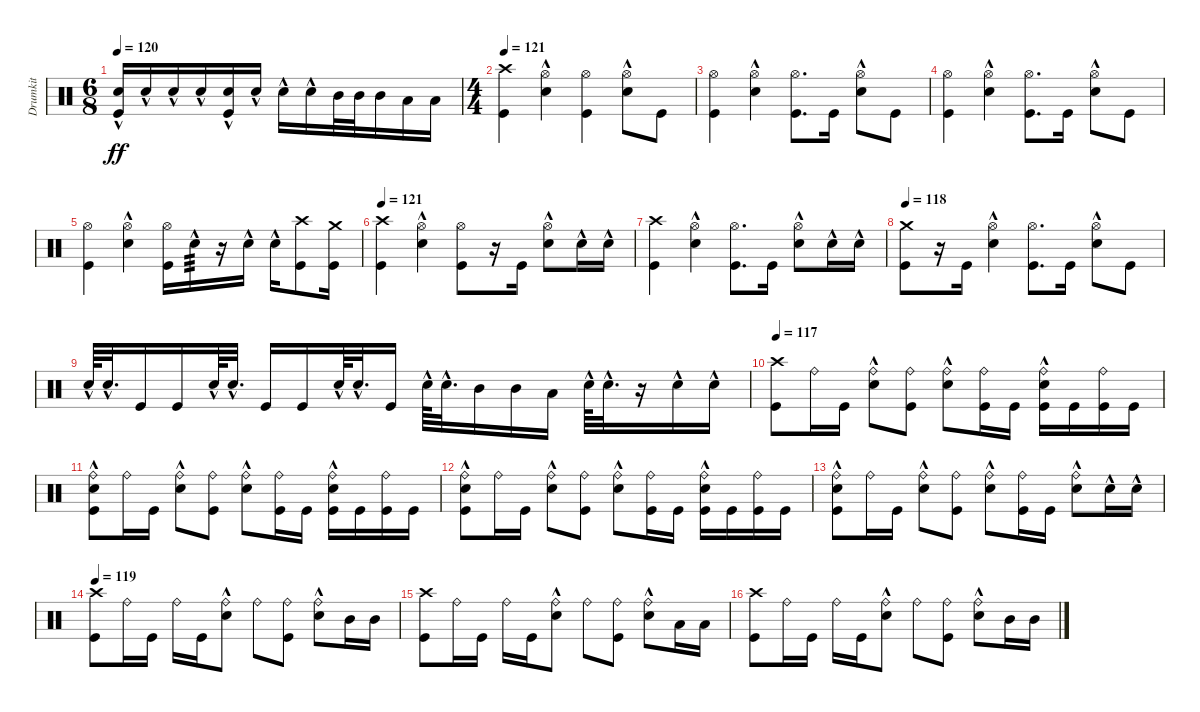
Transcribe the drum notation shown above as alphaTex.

\track ("Drumkit" "Drumkit") {instrument percussion}
\staff {score}
\articulation defaults
\ts (6 8)
\tempo 120
\clef neutral
\ks aminor
("Snare (hit) 2"{hac} "Kick (hit)").16{dy ff} "Snare (hit) 2"{hac}.16 "Snare (hit) 2"{hac}.16 "Snare (hit) 2"{hac}.16 ("Snare (hit) 2"{hac} "Kick (hit)").16 "Snare (hit) 2"{hac}.16 "Snare (hit) 2"{hac}.16 "Snare (hit) 2"{hac}.16 "Mid Tom (hit)".32 "Mid Tom (hit)".32 "Mid Tom (hit)".16 "Low Tom (hit)".16 "Low Tom (hit)".16 |
\ts (4 4)
\tempo 121
("Kick (hit)" "Crash high (hit)").4 ("Hi-Hat (open)" "Snare (hit) 2"{hac}).4 ("Hi-Hat (open)" "Kick (hit)").4 ("Hi-Hat (open)" "Snare (hit) 2"{hac}).8 "Kick (hit)".8 |
("Hi-Hat (open)" "Kick (hit)").4 ("Hi-Hat (open)" "Snare (hit) 2"{hac}).4 ("Hi-Hat (open)" "Kick (hit)").8{d} "Kick (hit)".16 ("Hi-Hat (open)" "Snare (hit) 2"{hac}).8 "Kick (hit)".8 |
("Hi-Hat (open)" "Kick (hit)").4 ("Hi-Hat (open)" "Snare (hit) 2"{hac}).4 ("Hi-Hat (open)" "Kick (hit)").8{d} "Kick (hit)".16 ("Hi-Hat (open)" "Snare (hit) 2"{hac}).8 "Kick (hit)".8 |
("Hi-Hat (open)" "Kick (hit)").4 ("Hi-Hat (open)" "Snare (hit) 2"{hac}).4 ("Hi-Hat (open)" "Kick (hit)").16 "Snare (hit) 2"{hac}.16{tp 3} r.16 "Snare (hit) 2"{hac}.16 "Snare (hit) 2"{hac}.16 ("Kick (hit)" "Crash high (hit)").8 ("Kick (hit)" "Crash medium (hit)").16 |
\tempo 121
("Kick (hit)" "Crash high (hit)").4 ("Hi-Hat (open)" "Snare (hit) 2"{hac}).4 ("Hi-Hat (open)" "Kick (hit)").8 r.16 "Kick (hit)".16 ("Hi-Hat (open)" "Snare (hit) 2"{hac}).8 "Snare (hit) 2"{hac}.16 "Snare (hit) 2"{hac}.16 |
("Kick (hit)" "Crash high (hit)").4 ("Hi-Hat (open)" "Snare (hit) 2"{hac}).4 ("Hi-Hat (open)" "Kick (hit)").8{d} "Kick (hit)".16 ("Hi-Hat (open)" "Snare (hit) 2"{hac}).8 "Snare (hit) 2"{hac}.16 "Snare (hit) 2"{hac}.16 |
\tempo 118
("Kick (hit)" "Crash medium (hit)").8 r.16 "Kick (hit)".16 ("Hi-Hat (open)" "Snare (hit) 2"{hac}).4 ("Hi-Hat (open)" "Kick (hit)").8{d} "Kick (hit)".16 ("Hi-Hat (open)" "Snare (hit) 2"{hac}).8 "Kick (hit)".8 |
"Snare (hit) 2"{hac}.64 "Snare (hit) 2"{hac}.32{d} "Kick (hit)".16 "Kick (hit)".16 "Snare (hit) 2"{hac}.64 "Snare (hit) 2"{hac}.32{d} "Kick (hit)".16 "Kick (hit)".16 "Snare (hit) 2"{hac}.64 "Snare (hit) 2"{hac}.32{d} "Kick (hit)".16 "Snare (hit) 2"{hac}.64 "Snare (hit) 2"{hac}.32{d} "Mid Tom (hit)".16 "Mid Tom (hit)".16 "Low Tom (hit)".16 "Snare (hit) 2"{hac}.64 "Snare (hit) 2"{hac}.32{d} r.16 "Snare (hit) 2"{hac}.16 "Snare (hit) 2"{hac}.16 |
\tempo 117
("Kick (hit)" "Crash high (hit)").8 "Ride (bell)".16 "Kick (hit)".16 ("Ride (bell)" "Snare (hit) 2"{hac}).8 ("Ride (bell)" "Kick (hit)").8 ("Ride (bell)" "Snare (hit) 2"{hac}).8 ("Ride (bell)" "Kick (hit)").16 "Kick (hit)".16 ("Ride (bell)" "Snare (hit) 2"{hac} "Kick (hit)").16 "Kick (hit)".16 ("Ride (bell)" "Kick (hit)").16 "Kick (hit)".16 |
("Kick (hit)" "Ride (bell)" "Snare (hit) 2"{hac}).8 "Ride (bell)".16 "Kick (hit)".16 ("Ride (bell)" "Snare (hit) 2"{hac}).8 ("Ride (bell)" "Kick (hit)").8 ("Ride (bell)" "Snare (hit) 2"{hac}).8 ("Ride (bell)" "Kick (hit)").16 "Kick (hit)".16 ("Ride (bell)" "Snare (hit) 2"{hac} "Kick (hit)").16 "Kick (hit)".16 ("Ride (bell)" "Kick (hit)").16 "Kick (hit)".16 |
("Kick (hit)" "Ride (bell)" "Snare (hit) 2"{hac}).8 "Ride (bell)".16 "Kick (hit)".16 ("Ride (bell)" "Snare (hit) 2"{hac}).8 ("Ride (bell)" "Kick (hit)").8 ("Ride (bell)" "Snare (hit) 2"{hac}).8 ("Ride (bell)" "Kick (hit)").16 "Kick (hit)".16 ("Ride (bell)" "Snare (hit) 2"{hac} "Kick (hit)").16 "Kick (hit)".16 ("Ride (bell)" "Kick (hit)").16 "Kick (hit)".16 |
("Kick (hit)" "Ride (bell)" "Snare (hit) 2"{hac}).8 "Ride (bell)".16 "Kick (hit)".16 ("Ride (bell)" "Snare (hit) 2"{hac}).8 ("Ride (bell)" "Kick (hit)").8 ("Ride (bell)" "Snare (hit) 2"{hac}).8 ("Ride (bell)" "Kick (hit)").16 "Kick (hit)".16 ("Ride (bell)" "Snare (hit) 2"{hac}).8 "Snare (hit) 2"{hac}.16 "Snare (hit) 2"{hac}.16 |
\tempo 119
("Kick (hit)" "Crash high (hit)").8 "Ride (bell)".16 "Kick (hit)".16 "Ride (bell)".16 "Kick (hit)".16 ("Ride (bell)" "Snare (hit) 2"{hac}).8 "Ride (bell)".8 ("Ride (bell)" "Kick (hit)").8 ("Ride (bell)" "Snare (hit) 2"{hac}).8 "Mid Tom (hit)".16 "Mid Tom (hit)".16 |
("Kick (hit)" "Crash high (hit)").8 "Ride (bell)".16 "Kick (hit)".16 "Ride (bell)".16 "Kick (hit)".16 ("Ride (bell)" "Snare (hit) 2"{hac}).8 "Ride (bell)".8 ("Ride (bell)" "Kick (hit)").8 ("Ride (bell)" "Snare (hit) 2"{hac}).8 "Low Tom (hit)".16 "Low Tom (hit)".16 |
("Kick (hit)" "Crash high (hit)").8 "Ride (bell)".16 "Kick (hit)".16 "Ride (bell)".16 "Kick (hit)".16 ("Ride (bell)" "Snare (hit) 2"{hac}).8 "Ride (bell)".8 ("Ride (bell)" "Kick (hit)").8 ("Ride (bell)" "Snare (hit) 2"{hac}).8 "Mid Tom (hit)".16 "Mid Tom (hit)".16
